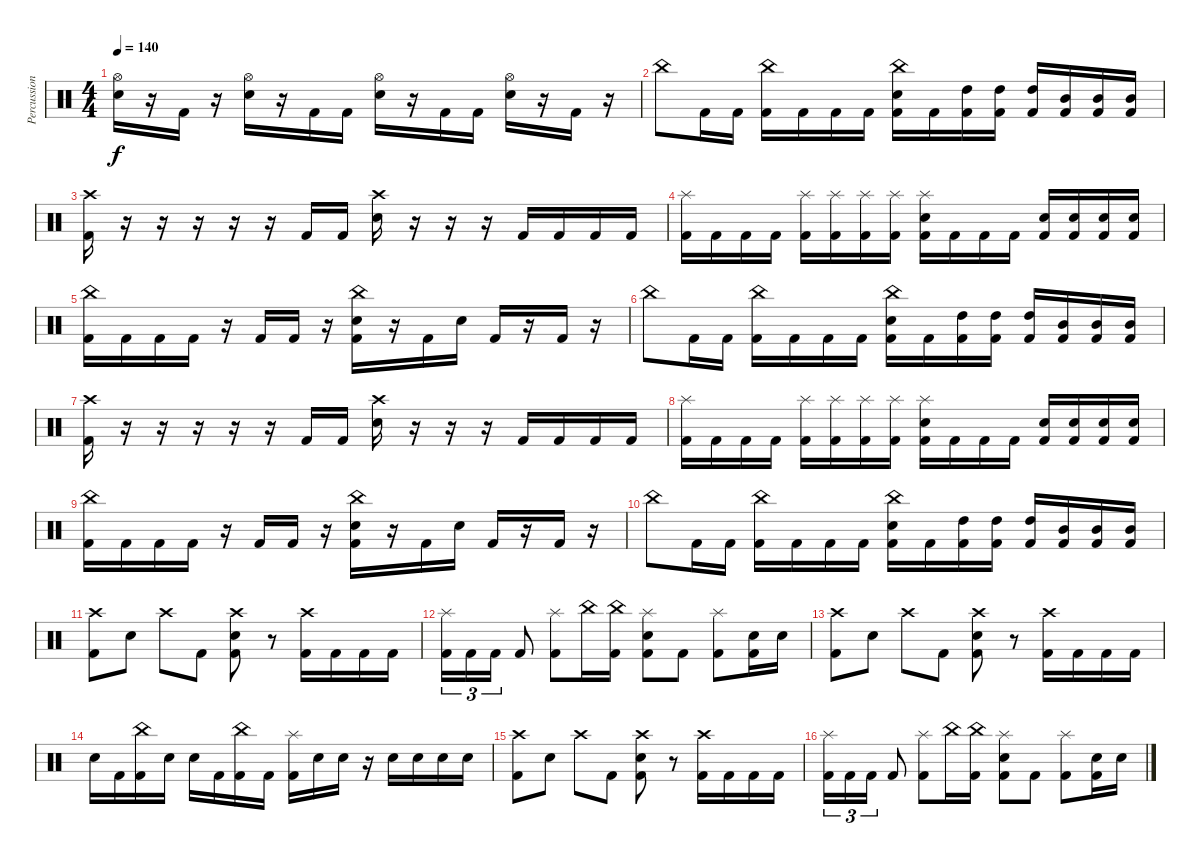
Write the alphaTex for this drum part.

\track ("Percussion" "Percussion") {instrument percussion}
\staff {score}
\articulation defaults
\ts (4 4)
\tempo 140
\clef neutral
\ks c
("Hi-Hat (open)" "Snare (hit) 2").16{dy f} r.16 "Kick (hit) 2".16 r.16 ("Hi-Hat (open)" "Snare (hit) 2").16 r.16 "Kick (hit) 2".16 "Kick (hit) 2".16 ("Hi-Hat (open)" "Snare (hit) 2").16 r.16 "Kick (hit) 2".16 "Kick (hit) 2".16 ("Hi-Hat (open)" "Snare (hit) 2").16 r.16 "Kick (hit) 2".16 r.16 |
"China (hit)".8 "Kick (hit) 2".16 "Kick (hit) 2".16 ("China (hit)" "Kick (hit) 2").16 "Kick (hit) 2".16 "Kick (hit) 2".16 "Kick (hit) 2".16 ("China (hit)" "Snare (hit) 2" "Kick (hit) 2").16 "Kick (hit) 2".16 ("High Tom (hit)" "Kick (hit) 2").16 ("High Tom (hit)" "Kick (hit) 2").16 ("High Tom (hit)" "Kick (hit) 2").16 ("Mid Tom (hit)" "Kick (hit) 2").16 ("Mid Tom (hit)" "Kick (hit) 2").16 ("Mid Tom (hit)" "Kick (hit) 2").16 |
("Crash high (hit)" "Kick (hit) 2").16 r.16 r.16 r.16 r.16 r.16 "Kick (hit) 2".16 "Kick (hit) 2".16 ("Crash high (hit)" "Snare (hit) 2").16 r.16 r.16 r.16 "Kick (hit) 2".16 "Kick (hit) 2".16 "Kick (hit) 2".16 "Kick (hit) 2".16 |
("Splash (hit)" "Kick (hit) 2").16 "Kick (hit) 2".16 "Kick (hit) 2".16 "Kick (hit) 2".16 ("Splash (hit)" "Kick (hit) 2").16 ("Splash (hit)" "Kick (hit) 2").16 ("Splash (hit)" "Kick (hit) 2").16 ("Splash (hit)" "Kick (hit) 2").16 ("Splash (hit)" "Snare (hit) 2" "Kick (hit) 2").16 "Kick (hit) 2".16 "Kick (hit) 2".16 "Kick (hit) 2".16 ("Snare (hit) 2" "Kick (hit) 2").16 ("Snare (hit) 2" "Kick (hit) 2").16 ("Snare (hit) 2" "Kick (hit) 2").16 ("Snare (hit) 2" "Kick (hit) 2").16 |
("China (hit)" "Kick (hit) 2").16 "Kick (hit) 2".16 "Kick (hit) 2".16 "Kick (hit) 2".16 r.16 "Kick (hit) 2".16 "Kick (hit) 2".16 r.16 ("China (hit)" "Snare (hit) 2" "Kick (hit) 2").16 r.16 "Kick (hit) 2".16 "Snare (hit) 2".16 "Kick (hit) 2".16 r.16 "Kick (hit) 2".16 r.16 |
"China (hit)".8 "Kick (hit) 2".16 "Kick (hit) 2".16 ("China (hit)" "Kick (hit) 2").16 "Kick (hit) 2".16 "Kick (hit) 2".16 "Kick (hit) 2".16 ("China (hit)" "Snare (hit) 2" "Kick (hit) 2").16 "Kick (hit) 2".16 ("High Tom (hit)" "Kick (hit) 2").16 ("High Tom (hit)" "Kick (hit) 2").16 ("High Tom (hit)" "Kick (hit) 2").16 ("Mid Tom (hit)" "Kick (hit) 2").16 ("Mid Tom (hit)" "Kick (hit) 2").16 ("Mid Tom (hit)" "Kick (hit) 2").16 |
("Crash high (hit)" "Kick (hit) 2").16 r.16 r.16 r.16 r.16 r.16 "Kick (hit) 2".16 "Kick (hit) 2".16 ("Crash high (hit)" "Snare (hit) 2").16 r.16 r.16 r.16 "Kick (hit) 2".16 "Kick (hit) 2".16 "Kick (hit) 2".16 "Kick (hit) 2".16 |
("Splash (hit)" "Kick (hit) 2").16 "Kick (hit) 2".16 "Kick (hit) 2".16 "Kick (hit) 2".16 ("Splash (hit)" "Kick (hit) 2").16 ("Splash (hit)" "Kick (hit) 2").16 ("Splash (hit)" "Kick (hit) 2").16 ("Splash (hit)" "Kick (hit) 2").16 ("Splash (hit)" "Snare (hit) 2" "Kick (hit) 2").16 "Kick (hit) 2".16 "Kick (hit) 2".16 "Kick (hit) 2".16 ("Snare (hit) 2" "Kick (hit) 2").16 ("Snare (hit) 2" "Kick (hit) 2").16 ("Snare (hit) 2" "Kick (hit) 2").16 ("Snare (hit) 2" "Kick (hit) 2").16 |
("China (hit)" "Kick (hit) 2").16 "Kick (hit) 2".16 "Kick (hit) 2".16 "Kick (hit) 2".16 r.16 "Kick (hit) 2".16 "Kick (hit) 2".16 r.16 ("China (hit)" "Snare (hit) 2" "Kick (hit) 2").16 r.16 "Kick (hit) 2".16 "Snare (hit) 2".16 "Kick (hit) 2".16 r.16 "Kick (hit) 2".16 r.16 |
"China (hit)".8 "Kick (hit) 2".16 "Kick (hit) 2".16 ("China (hit)" "Kick (hit) 2").16 "Kick (hit) 2".16 "Kick (hit) 2".16 "Kick (hit) 2".16 ("China (hit)" "Snare (hit) 2" "Kick (hit) 2").16 "Kick (hit) 2".16 ("High Tom (hit)" "Kick (hit) 2").16 ("High Tom (hit)" "Kick (hit) 2").16 ("High Tom (hit)" "Kick (hit) 2").16 ("Mid Tom (hit)" "Kick (hit) 2").16 ("Mid Tom (hit)" "Kick (hit) 2").16 ("Mid Tom (hit)" "Kick (hit) 2").16 |
("Crash high (hit)" "Kick (hit) 2").8 "Snare (hit) 2".8 "Crash high (hit)".8 "Kick (hit) 2".8 ("Crash high (hit)" "Snare (hit) 2" "Kick (hit) 2").8 r.8 ("Crash high (hit)" "Kick (hit) 2").16 "Kick (hit) 2".16 "Kick (hit) 2".16 "Kick (hit) 2".16 |
("Splash (hit)" "Kick (hit) 2").16{tu (3 2)} "Kick (hit) 2".16{tu (3 2)} "Kick (hit) 2".16{tu (3 2)} "Kick (hit) 2".8 ("Splash (hit)" "Kick (hit) 2").8 "China (hit)".16 ("China (hit)" "Kick (hit) 2").16 ("Splash (hit)" "Snare (hit) 2" "Kick (hit) 2").8 "Kick (hit) 2".8 ("Splash (hit)" "Kick (hit) 2").8 ("Snare (hit) 2" "Kick (hit) 2").16 "Snare (hit) 2".16 |
("Crash high (hit)" "Kick (hit) 2").8 "Snare (hit) 2".8 "Crash high (hit)".8 "Kick (hit) 2".8 ("Crash high (hit)" "Snare (hit) 2" "Kick (hit) 2").8 r.8 ("Crash high (hit)" "Kick (hit) 2").16 "Kick (hit) 2".16 "Kick (hit) 2".16 "Kick (hit) 2".16 |
"Snare (hit) 2".16 "Kick (hit) 2".16 ("China (hit)" "Kick (hit) 2").16 "Snare (hit) 2".16 "Snare (hit) 2".16 "Kick (hit) 2".16 ("China (hit)" "Kick (hit) 2").16 "Kick (hit) 2".16 ("Splash (hit)" "Kick (hit) 2").16 "Snare (hit) 2".16 "Snare (hit) 2".16 r.16 "Snare (hit) 2".16 "Snare (hit) 2".16 "Snare (hit) 2".16 "Snare (hit) 2".16 |
("Crash high (hit)" "Kick (hit) 2").8 "Snare (hit) 2".8 "Crash high (hit)".8 "Kick (hit) 2".8 ("Crash high (hit)" "Snare (hit) 2" "Kick (hit) 2").8 r.8 ("Crash high (hit)" "Kick (hit) 2").16 "Kick (hit) 2".16 "Kick (hit) 2".16 "Kick (hit) 2".16 |
("Splash (hit)" "Kick (hit) 2").16{tu (3 2)} "Kick (hit) 2".16{tu (3 2)} "Kick (hit) 2".16{tu (3 2)} "Kick (hit) 2".8 ("Splash (hit)" "Kick (hit) 2").8 "China (hit)".16 ("China (hit)" "Kick (hit) 2").16 ("Splash (hit)" "Snare (hit) 2" "Kick (hit) 2").8 "Kick (hit) 2".8 ("Splash (hit)" "Kick (hit) 2").8 ("Snare (hit) 2" "Kick (hit) 2").16 "Snare (hit) 2".16
